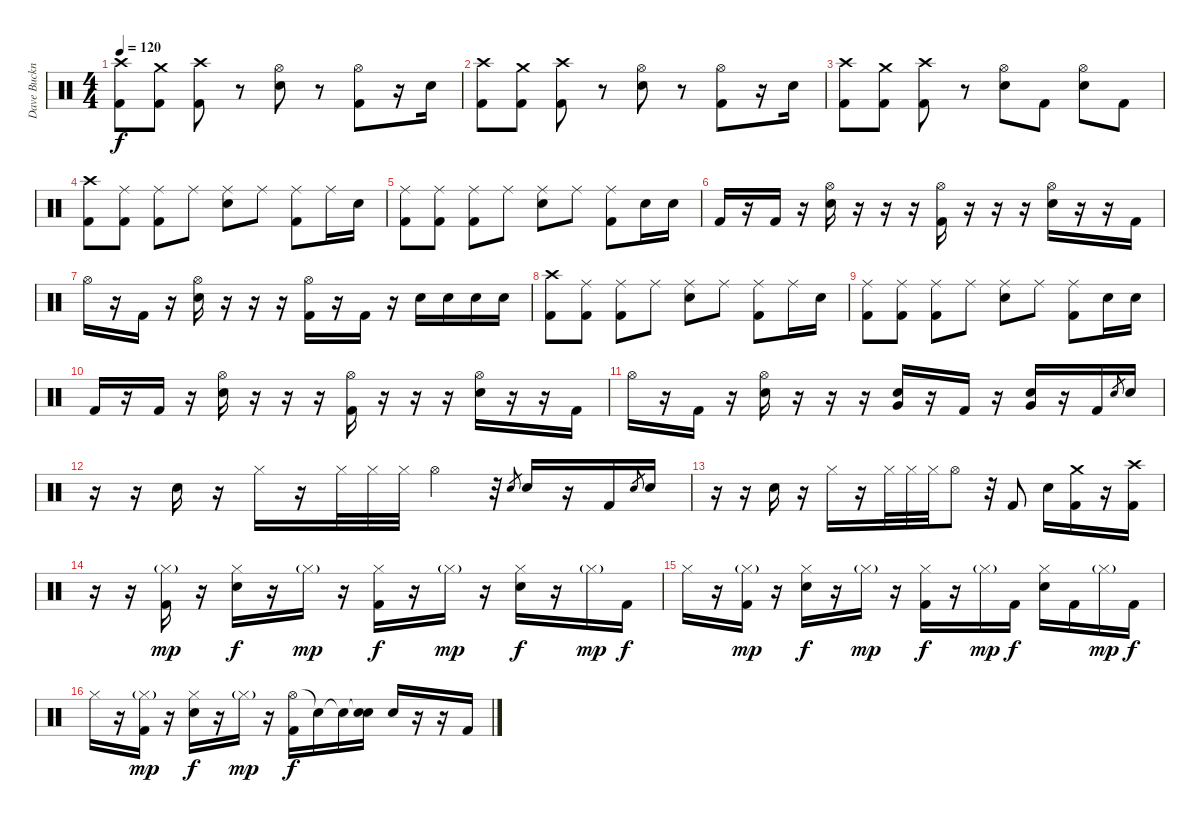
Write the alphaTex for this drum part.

\track ("Dave Buckner RULZ!!! (Drums)" "Dave Buckn") {instrument percussion}
\staff {score}
\articulation defaults
\ts (4 4)
\tempo 120
\clef neutral
\ks c
("Crash high (hit)" "Kick (hit) 2").8{dy f} ("Crash medium (hit)" "Kick (hit) 2").8 ("Crash high (hit)" "Kick (hit) 2").8 r.8 ("Hi-Hat (open)" "Electric Snare (hit)").8 r.8 ("Hi-Hat (open)" "Kick (hit) 2").8 r.16 "Electric Snare (hit)".16 |
("Crash high (hit)" "Kick (hit) 2").8 ("Crash medium (hit)" "Kick (hit) 2").8 ("Crash high (hit)" "Kick (hit) 2").8 r.8 ("Hi-Hat (open)" "Electric Snare (hit)").8 r.8 ("Hi-Hat (open)" "Kick (hit) 2").8 r.16 "Electric Snare (hit)".16 |
("Crash high (hit)" "Kick (hit) 2").8 ("Crash medium (hit)" "Kick (hit) 2").8 ("Crash high (hit)" "Kick (hit) 2").8 r.8 ("Hi-Hat (open)" "Electric Snare (hit)").8 "Kick (hit) 2".8 ("Hi-Hat (open)" "Electric Snare (hit)").8 "Kick (hit) 2".8 |
("Crash high (hit)" "Kick (hit) 2").8 ("Ride (middle)" "Kick (hit) 2").8 ("Ride (middle)" "Kick (hit) 2").8 "Ride (middle)".8 ("Ride (middle)" "Electric Snare (hit)").8 "Ride (middle)".8 ("Ride (middle)" "Kick (hit) 2").8 "Ride (middle)".16 "Electric Snare (hit)".16 |
("Ride (middle)" "Kick (hit) 2").8 ("Ride (middle)" "Kick (hit) 2").8 ("Ride (middle)" "Kick (hit) 2").8 "Ride (middle)".8 ("Ride (middle)" "Electric Snare (hit)").8 "Ride (middle)".8 ("Ride (middle)" "Kick (hit) 2").8 "Electric Snare (hit)".16 "Electric Snare (hit)".16 |
"Kick (hit) 2".16 r.16 "Kick (hit) 2".16 r.16 ("Hi-Hat (open)" "Electric Snare (hit)").16 r.16 r.16 r.16 ("Hi-Hat (open)" "Kick (hit) 2").16 r.16 r.16 r.16 ("Hi-Hat (open)" "Electric Snare (hit)").16 r.16 r.16 "Kick (hit) 2".16 |
"Hi-Hat (open)".16 r.16 "Kick (hit) 2".16 r.16 ("Hi-Hat (open)" "Electric Snare (hit)").16 r.16 r.16 r.16 ("Hi-Hat (open)" "Kick (hit) 2").16 r.16 "Kick (hit) 2".16 r.16 "Electric Snare (hit)".16 "Electric Snare (hit)".16 "Electric Snare (hit)".16 "Electric Snare (hit)".16 |
("Crash high (hit)" "Kick (hit) 2").8 ("Ride (middle)" "Kick (hit) 2").8 ("Ride (middle)" "Kick (hit) 2").8 "Ride (middle)".8 ("Ride (middle)" "Electric Snare (hit)").8 "Ride (middle)".8 ("Ride (middle)" "Kick (hit) 2").8 "Ride (middle)".16 "Electric Snare (hit)".16 |
("Ride (middle)" "Kick (hit) 2").8 ("Ride (middle)" "Kick (hit) 2").8 ("Ride (middle)" "Kick (hit) 2").8 "Ride (middle)".8 ("Ride (middle)" "Electric Snare (hit)").8 "Ride (middle)".8 ("Ride (middle)" "Kick (hit) 2").8 "Electric Snare (hit)".16 "Electric Snare (hit)".16 |
"Kick (hit) 2".16 r.16 "Kick (hit) 2".16 r.16 ("Hi-Hat (open)" "Electric Snare (hit)").16 r.16 r.16 r.16 ("Hi-Hat (open)" "Kick (hit) 2").16 r.16 r.16 r.16 ("Hi-Hat (open)" "Electric Snare (hit)").16 r.16 r.16 "Kick (hit) 2".16 |
"Hi-Hat (open)".16 r.16 "Kick (hit) 2".16 r.16 ("Hi-Hat (open)" "Electric Snare (hit)").16 r.16 r.16 r.16 ("Electric Snare (hit)" "Very Low Tom (hit)").16 r.16 "Kick (hit) 2".16 r.16 ("Electric Snare (hit)" "Very Low Tom (hit)").16 r.16 "Kick (hit) 2".16 "Electric Snare (hit)".8{gr} "Electric Snare (hit)".16 |
r.16 r.16 "Electric Snare (hit)".16 r.16 "Hi-Hat (closed)".16 r.16 "Hi-Hat (closed)".32 "Hi-Hat (closed)".32 "Hi-Hat (closed)".32 "Hi-Hat (open)".4 r.32 "Electric Snare (hit)".8{gr} "Electric Snare (hit)".16 r.16 "Kick (hit) 2".16 "Electric Snare (hit)".8{gr} "Electric Snare (hit)".16 |
r.16 r.16 "Electric Snare (hit)".16 r.16 "Hi-Hat (closed)".16 r.16 "Hi-Hat (closed)".32 "Hi-Hat (closed)".32 "Hi-Hat (closed)".32 "Hi-Hat (open)".8 r.32 "Kick (hit) 2".8 "Electric Snare (hit)".16 ("Crash medium (hit)" "Kick (hit) 2").16 r.16 ("Crash high (hit)" "Kick (hit) 2").16 |
r.16 r.16 ("Hi-Hat (closed)"{g} "Kick (hit) 2").16{dy mp} r.16 ("Hi-Hat (closed)" "Electric Snare (hit)").16{dy f} r.16 "Hi-Hat (closed)"{g}.16{dy mp} r.16 ("Hi-Hat (closed)" "Kick (hit) 2").16{dy f} r.16 "Hi-Hat (closed)"{g}.16{dy mp} r.16 ("Hi-Hat (closed)" "Electric Snare (hit)").16{dy f} r.16 "Hi-Hat (closed)"{g}.16{dy mp} "Kick (hit) 2".16{dy f} |
"Hi-Hat (closed)".16 r.16 ("Hi-Hat (closed)"{g} "Kick (hit) 2").16{dy mp} r.16 ("Hi-Hat (closed)" "Electric Snare (hit)").16{dy f} r.16 "Hi-Hat (closed)"{g}.16{dy mp} r.16 ("Hi-Hat (closed)" "Kick (hit) 2").16{dy f} r.16 "Hi-Hat (closed)"{g}.16{dy mp} "Kick (hit) 2".16{dy f} ("Hi-Hat (closed)" "Electric Snare (hit)").16 "Kick (hit) 2".16 "Hi-Hat (closed)"{g}.16{dy mp} "Kick (hit) 2".16{dy f} |
"Hi-Hat (closed)".16 r.16 ("Hi-Hat (closed)"{g} "Kick (hit) 2").16{dy mp} r.16 ("Hi-Hat (closed)" "Electric Snare (hit)").16{dy f} r.16 "Hi-Hat (closed)"{g}.16{dy mp} r.16 ("Hi-Hat (open)" "Kick (hit) 2").16{dy f} "Snare (hit)"{t}.16 "Snare (hit)"{t}.16 ("Snare (hit)"{t} "Electric Snare (hit)").16 "Electric Snare (hit)".16 r.16 r.16 "Kick (hit) 2".16
